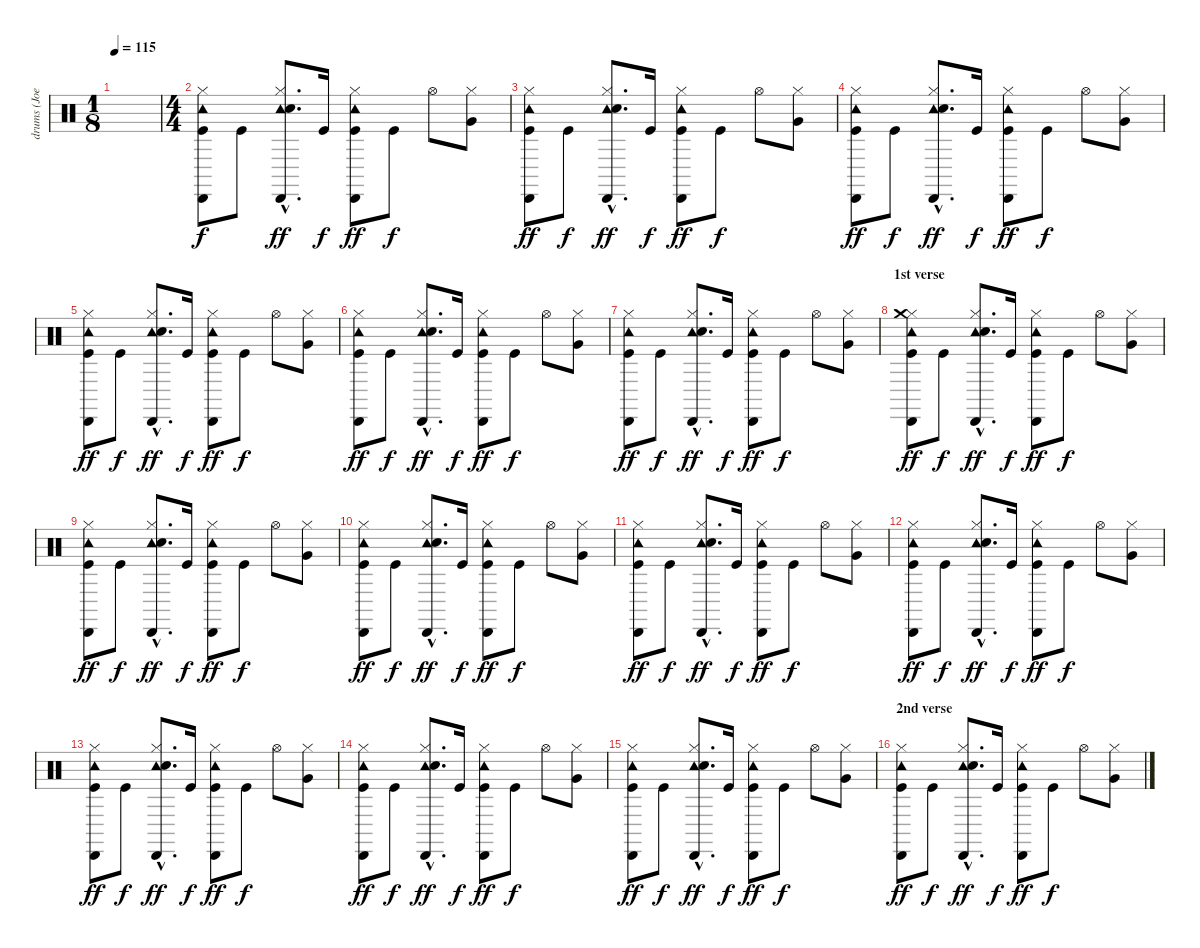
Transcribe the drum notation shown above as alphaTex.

\track ("drums (Joey Castillo)" "drums (Joe") {instrument percussion}
\staff {score}
\articulation defaults
\ts (1 8)
\tempo 115
\clef neutral
\ks c
|
\ts (4 4)
("Tambourine (hit)" "Cabasa (hit)" "Kick (hit)" "Hi-Hat (closed)").8 "Kick (hit)".8{dy f} ("Tambourine (hit)"{hac} "Cabasa (hit)"{hac} "Electric Snare (hit)"{hac} "Hi-Hat (closed)"{hac}).8{d dy ff} "Kick (hit)".16{dy f} ("Tambourine (hit)" "Cabasa (hit)" "Kick (hit)" "Hi-Hat (closed)").8{dy ff} "Kick (hit)".8{dy f} "Hi-Hat (open)".8 ("Very Low Tom (hit)" "Hi-Hat (closed)").8 |
("Tambourine (hit)" "Cabasa (hit)" "Kick (hit)" "Hi-Hat (closed)").8{dy ff} "Kick (hit)".8{dy f} ("Tambourine (hit)"{hac} "Cabasa (hit)"{hac} "Electric Snare (hit)"{hac} "Hi-Hat (closed)"{hac}).8{d dy ff} "Kick (hit)".16{dy f} ("Tambourine (hit)" "Cabasa (hit)" "Kick (hit)" "Hi-Hat (closed)").8{dy ff} "Kick (hit)".8{dy f} "Hi-Hat (open)".8 ("Very Low Tom (hit)" "Hi-Hat (closed)").8 |
\section ("" "")
("Tambourine (hit)" "Cabasa (hit)" "Kick (hit)" "Hi-Hat (closed)").8{dy ff} "Kick (hit)".8{dy f} ("Tambourine (hit)"{hac} "Cabasa (hit)"{hac} "Electric Snare (hit)"{hac} "Hi-Hat (closed)"{hac}).8{d dy ff} "Kick (hit)".16{dy f} ("Tambourine (hit)" "Cabasa (hit)" "Kick (hit)" "Hi-Hat (closed)").8{dy ff} "Kick (hit)".8{dy f} "Hi-Hat (open)".8 ("Very Low Tom (hit)" "Hi-Hat (closed)").8 |
("Tambourine (hit)" "Cabasa (hit)" "Kick (hit)" "Hi-Hat (closed)").8{dy ff} "Kick (hit)".8{dy f} ("Tambourine (hit)"{hac} "Cabasa (hit)"{hac} "Electric Snare (hit)"{hac} "Hi-Hat (closed)"{hac}).8{d dy ff} "Kick (hit)".16{dy f} ("Tambourine (hit)" "Cabasa (hit)" "Kick (hit)" "Hi-Hat (closed)").8{dy ff} "Kick (hit)".8{dy f} "Hi-Hat (open)".8 ("Very Low Tom (hit)" "Hi-Hat (closed)").8 |
("Tambourine (hit)" "Cabasa (hit)" "Kick (hit)" "Hi-Hat (closed)").8{dy ff} "Kick (hit)".8{dy f} ("Tambourine (hit)"{hac} "Cabasa (hit)"{hac} "Electric Snare (hit)"{hac} "Hi-Hat (closed)"{hac}).8{d dy ff} "Kick (hit)".16{dy f} ("Tambourine (hit)" "Cabasa (hit)" "Kick (hit)" "Hi-Hat (closed)").8{dy ff} "Kick (hit)".8{dy f} "Hi-Hat (open)".8 ("Very Low Tom (hit)" "Hi-Hat (closed)").8 |
("Tambourine (hit)" "Cabasa (hit)" "Kick (hit)" "Hi-Hat (closed)").8{dy ff} "Kick (hit)".8{dy f} ("Tambourine (hit)"{hac} "Cabasa (hit)"{hac} "Electric Snare (hit)"{hac} "Hi-Hat (closed)"{hac}).8{d dy ff} "Kick (hit)".16{dy f} ("Tambourine (hit)" "Cabasa (hit)" "Kick (hit)" "Hi-Hat (closed)").8{dy ff} "Kick (hit)".8{dy f} "Hi-Hat (open)".8 ("Very Low Tom (hit)" "Hi-Hat (closed)").8 |
\section ("" "1st verse")
("Tambourine (hit)" "Cabasa (hit)" "Kick (hit)" "Hi-Hat (closed)" "Crash medium (hit)").8{dy ff} "Kick (hit)".8{dy f} ("Tambourine (hit)"{hac} "Cabasa (hit)"{hac} "Electric Snare (hit)"{hac} "Hi-Hat (closed)"{hac}).8{d dy ff} "Kick (hit)".16{dy f} ("Tambourine (hit)" "Cabasa (hit)" "Kick (hit)" "Hi-Hat (closed)").8{dy ff} "Kick (hit)".8{dy f} "Hi-Hat (open)".8 ("Very Low Tom (hit)" "Hi-Hat (closed)").8 |
("Tambourine (hit)" "Cabasa (hit)" "Kick (hit)" "Hi-Hat (closed)").8{dy ff} "Kick (hit)".8{dy f} ("Tambourine (hit)"{hac} "Cabasa (hit)"{hac} "Electric Snare (hit)"{hac} "Hi-Hat (closed)"{hac}).8{d dy ff} "Kick (hit)".16{dy f} ("Tambourine (hit)" "Cabasa (hit)" "Kick (hit)" "Hi-Hat (closed)").8{dy ff} "Kick (hit)".8{dy f} "Hi-Hat (open)".8 ("Very Low Tom (hit)" "Hi-Hat (closed)").8 |
("Tambourine (hit)" "Cabasa (hit)" "Kick (hit)" "Hi-Hat (closed)").8{dy ff} "Kick (hit)".8{dy f} ("Tambourine (hit)"{hac} "Cabasa (hit)"{hac} "Electric Snare (hit)"{hac} "Hi-Hat (closed)"{hac}).8{d dy ff} "Kick (hit)".16{dy f} ("Tambourine (hit)" "Cabasa (hit)" "Kick (hit)" "Hi-Hat (closed)").8{dy ff} "Kick (hit)".8{dy f} "Hi-Hat (open)".8 ("Very Low Tom (hit)" "Hi-Hat (closed)").8 |
("Tambourine (hit)" "Cabasa (hit)" "Kick (hit)" "Hi-Hat (closed)").8{dy ff} "Kick (hit)".8{dy f} ("Tambourine (hit)"{hac} "Cabasa (hit)"{hac} "Electric Snare (hit)"{hac} "Hi-Hat (closed)"{hac}).8{d dy ff} "Kick (hit)".16{dy f} ("Tambourine (hit)" "Cabasa (hit)" "Kick (hit)" "Hi-Hat (closed)").8{dy ff} "Kick (hit)".8{dy f} "Hi-Hat (open)".8 ("Very Low Tom (hit)" "Hi-Hat (closed)").8 |
("Tambourine (hit)" "Cabasa (hit)" "Kick (hit)" "Hi-Hat (closed)").8{dy ff} "Kick (hit)".8{dy f} ("Tambourine (hit)"{hac} "Cabasa (hit)"{hac} "Electric Snare (hit)"{hac} "Hi-Hat (closed)"{hac}).8{d dy ff} "Kick (hit)".16{dy f} ("Tambourine (hit)" "Cabasa (hit)" "Kick (hit)" "Hi-Hat (closed)").8{dy ff} "Kick (hit)".8{dy f} "Hi-Hat (open)".8 ("Very Low Tom (hit)" "Hi-Hat (closed)").8 |
("Tambourine (hit)" "Cabasa (hit)" "Kick (hit)" "Hi-Hat (closed)").8{dy ff} "Kick (hit)".8{dy f} ("Tambourine (hit)"{hac} "Cabasa (hit)"{hac} "Electric Snare (hit)"{hac} "Hi-Hat (closed)"{hac}).8{d dy ff} "Kick (hit)".16{dy f} ("Tambourine (hit)" "Cabasa (hit)" "Kick (hit)" "Hi-Hat (closed)").8{dy ff} "Kick (hit)".8{dy f} "Hi-Hat (open)".8 ("Very Low Tom (hit)" "Hi-Hat (closed)").8 |
\section ("" "")
("Tambourine (hit)" "Cabasa (hit)" "Kick (hit)" "Hi-Hat (closed)").8{dy ff} "Kick (hit)".8{dy f} ("Tambourine (hit)"{hac} "Cabasa (hit)"{hac} "Electric Snare (hit)"{hac} "Hi-Hat (closed)"{hac}).8{d dy ff} "Kick (hit)".16{dy f} ("Tambourine (hit)" "Cabasa (hit)" "Kick (hit)" "Hi-Hat (closed)").8{dy ff} "Kick (hit)".8{dy f} "Hi-Hat (open)".8 ("Very Low Tom (hit)" "Hi-Hat (closed)").8 |
("Tambourine (hit)" "Cabasa (hit)" "Kick (hit)" "Hi-Hat (closed)").8{dy ff} "Kick (hit)".8{dy f} ("Tambourine (hit)"{hac} "Cabasa (hit)"{hac} "Electric Snare (hit)"{hac} "Hi-Hat (closed)"{hac}).8{d dy ff} "Kick (hit)".16{dy f} ("Tambourine (hit)" "Cabasa (hit)" "Kick (hit)" "Hi-Hat (closed)").8{dy ff} "Kick (hit)".8{dy f} "Hi-Hat (open)".8 ("Very Low Tom (hit)" "Hi-Hat (closed)").8 |
\section ("" "2nd verse")
("Tambourine (hit)" "Cabasa (hit)" "Kick (hit)" "Hi-Hat (closed)").8{dy ff} "Kick (hit)".8{dy f} ("Tambourine (hit)"{hac} "Cabasa (hit)"{hac} "Electric Snare (hit)"{hac} "Hi-Hat (closed)"{hac}).8{d dy ff} "Kick (hit)".16{dy f} ("Tambourine (hit)" "Cabasa (hit)" "Kick (hit)" "Hi-Hat (closed)").8{dy ff} "Kick (hit)".8{dy f} "Hi-Hat (open)".8 ("Very Low Tom (hit)" "Hi-Hat (closed)").8
